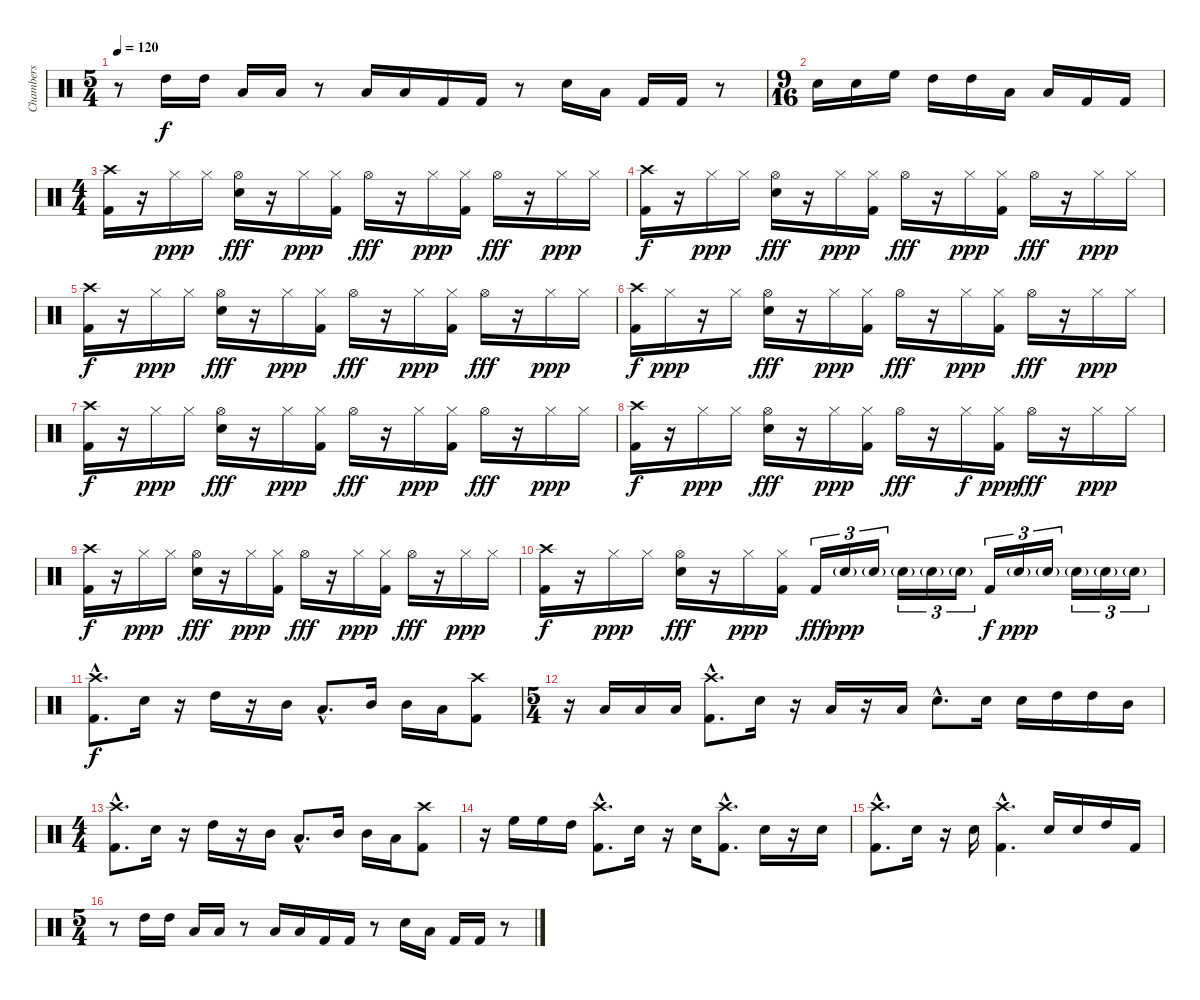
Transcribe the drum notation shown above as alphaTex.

\track ("Chambers" "Chambers") {instrument percussion}
\staff {score}
\articulation defaults
\ts (5 4)
\tempo 120
\clef neutral
\ks c
r.8{dy f} "High Tom (hit)".16 "High Tom (hit)".16 "Low Tom (hit)".16 "Low Tom (hit)".16 r.8 "Low Tom (hit)".16 "Low Tom (hit)".16 "Kick (hit) 2".16 "Kick (hit) 2".16 r.8 "Electric Snare (hit)".16 "Low Tom (hit)".16 "Kick (hit) 2".16 "Kick (hit) 2".16 r.8 |
\ts (9 16)
"Electric Snare (hit)".16 "Electric Snare (hit)".16 "High Floor Tom (hit)".16 "High Tom (hit)".16 "High Tom (hit)".16 "Low Tom (hit)".16 "Low Tom (hit)".16 "Kick (hit) 2".16 "Kick (hit) 2".16 |
\ts (4 4)
("Crash high (hit)" "Kick (hit) 2").16 r.16 "Hi-Hat (closed)".16{dy ppp} "Hi-Hat (closed)".16 ("Hi-Hat (open)" "Electric Snare (hit)").16{dy fff} r.16 "Hi-Hat (closed)".16{dy ppp} ("Hi-Hat (closed)" "Kick (hit) 2").16 "Hi-Hat (open)".16{dy fff} r.16 "Hi-Hat (closed)".16{dy ppp} ("Hi-Hat (closed)" "Kick (hit) 2").16 "Hi-Hat (open)".16{dy fff} r.16 "Hi-Hat (closed)".16{dy ppp} "Hi-Hat (closed)".16 |
("Crash high (hit)" "Kick (hit) 2").16{dy f} r.16 "Hi-Hat (closed)".16{dy ppp} "Hi-Hat (closed)".16 ("Hi-Hat (open)" "Electric Snare (hit)").16{dy fff} r.16 "Hi-Hat (closed)".16{dy ppp} ("Hi-Hat (closed)" "Kick (hit) 2").16 "Hi-Hat (open)".16{dy fff} r.16 "Hi-Hat (closed)".16{dy ppp} ("Hi-Hat (closed)" "Kick (hit) 2").16 "Hi-Hat (open)".16{dy fff} r.16 "Hi-Hat (closed)".16{dy ppp} "Hi-Hat (closed)".16 |
("Crash high (hit)" "Kick (hit) 2").16{dy f} r.16 "Hi-Hat (closed)".16{dy ppp} "Hi-Hat (closed)".16 ("Hi-Hat (open)" "Electric Snare (hit)").16{dy fff} r.16 "Hi-Hat (closed)".16{dy ppp} ("Hi-Hat (closed)" "Kick (hit) 2").16 "Hi-Hat (open)".16{dy fff} r.16 "Hi-Hat (closed)".16{dy ppp} ("Hi-Hat (closed)" "Kick (hit) 2").16 "Hi-Hat (open)".16{dy fff} r.16 "Hi-Hat (closed)".16{dy ppp} "Hi-Hat (closed)".16 |
("Crash high (hit)" "Kick (hit) 2").16{dy f} "Hi-Hat (closed)".16{dy ppp} r.16 "Hi-Hat (closed)".16 ("Hi-Hat (open)" "Electric Snare (hit)").16{dy fff} r.16 "Hi-Hat (closed)".16{dy ppp} ("Hi-Hat (closed)" "Kick (hit) 2").16 "Hi-Hat (open)".16{dy fff} r.16 "Hi-Hat (closed)".16{dy ppp} ("Hi-Hat (closed)" "Kick (hit) 2").16 "Hi-Hat (open)".16{dy fff} r.16 "Hi-Hat (closed)".16{dy ppp} "Hi-Hat (closed)".16 |
("Crash high (hit)" "Kick (hit) 2").16{dy f} r.16 "Hi-Hat (closed)".16{dy ppp} "Hi-Hat (closed)".16 ("Hi-Hat (open)" "Electric Snare (hit)").16{dy fff} r.16 "Hi-Hat (closed)".16{dy ppp} ("Hi-Hat (closed)" "Kick (hit) 2").16 "Hi-Hat (open)".16{dy fff} r.16 "Hi-Hat (closed)".16{dy ppp} ("Hi-Hat (closed)" "Kick (hit) 2").16 "Hi-Hat (open)".16{dy fff} r.16 "Hi-Hat (closed)".16{dy ppp} "Hi-Hat (closed)".16 |
("Crash high (hit)" "Kick (hit) 2").16{dy f} r.16 "Hi-Hat (closed)".16{dy ppp} "Hi-Hat (closed)".16 ("Hi-Hat (open)" "Electric Snare (hit)").16{dy fff} r.16 "Hi-Hat (closed)".16{dy ppp} ("Hi-Hat (closed)" "Kick (hit) 2").16 "Hi-Hat (open)".16{dy fff} r.16 "Hi-Hat (closed)".16{dy f} ("Hi-Hat (closed)" "Kick (hit) 2").16{dy ppp} "Hi-Hat (open)".16{dy fff} r.16 "Hi-Hat (closed)".16{dy ppp} "Hi-Hat (closed)".16 |
("Crash high (hit)" "Kick (hit) 2").16{dy f} r.16 "Hi-Hat (closed)".16{dy ppp} "Hi-Hat (closed)".16 ("Hi-Hat (open)" "Electric Snare (hit)").16{dy fff} r.16 "Hi-Hat (closed)".16{dy ppp} ("Hi-Hat (closed)" "Kick (hit) 2").16 "Hi-Hat (open)".16{dy fff} r.16 "Hi-Hat (closed)".16{dy ppp} ("Hi-Hat (closed)" "Kick (hit) 2").16 "Hi-Hat (open)".16{dy fff} r.16 "Hi-Hat (closed)".16{dy ppp} "Hi-Hat (closed)".16 |
("Crash high (hit)" "Kick (hit) 2").16{dy f} r.16 "Hi-Hat (closed)".16{dy ppp} "Hi-Hat (closed)".16 ("Hi-Hat (open)" "Electric Snare (hit)").16{dy fff} r.16 "Hi-Hat (closed)".16{dy ppp} ("Hi-Hat (closed)" "Kick (hit) 2").16 "Kick (hit) 2".16{tu (3 2) dy fff} "Electric Snare (hit)"{g}.16{tu (3 2) dy ppp} "Electric Snare (hit)"{g}.16{tu (3 2)} "Electric Snare (hit)"{g}.16{tu (3 2)} "Electric Snare (hit)"{g}.16{tu (3 2)} "Electric Snare (hit)"{g}.16{tu (3 2)} "Kick (hit) 2".16{tu (3 2) dy f} "Electric Snare (hit)"{g}.16{tu (3 2) dy ppp} "Electric Snare (hit)"{g}.16{tu (3 2)} "Electric Snare (hit)"{g}.16{tu (3 2)} "Electric Snare (hit)"{g}.16{tu (3 2)} "Electric Snare (hit)"{g}.16{tu (3 2)} |
("Crash high (hit)"{hac} "Kick (hit) 2"{hac}).8{d dy f} "Electric Snare (hit)".16 r.16 "High Tom (hit)".16 r.16 "Mid Tom (hit)".16 "Low Tom (hit)"{hac}.8{d} "Mid Tom (hit)".16 "Mid Tom (hit)".16 "Low Tom (hit)".16 ("Crash high (hit)" "Kick (hit) 2").8 |
\ts (5 4)
r.16 "Low Tom (hit)".16 "Low Tom (hit)".16 "Low Tom (hit)".16 ("Crash high (hit)"{hac} "Kick (hit) 2"{hac}).8{d} "Electric Snare (hit)".16 r.16 "Low Tom (hit)".16 r.16 "Low Tom (hit)".16 "Electric Snare (hit)"{hac}.8{d} "Electric Snare (hit)".16 "Electric Snare (hit)".16 "High Tom (hit)".16 "High Tom (hit)".16 "Mid Tom (hit)".16 |
\ts (4 4)
("Crash high (hit)"{hac} "Kick (hit) 2"{hac}).8{d} "Electric Snare (hit)".16 r.16 "High Tom (hit)".16 r.16 "Mid Tom (hit)".16 "Low Tom (hit)"{hac}.8{d} "Mid Tom (hit)".16 "Mid Tom (hit)".16 "Low Tom (hit)".16 ("Crash high (hit)" "Kick (hit) 2").8 |
r.16 "High Floor Tom (hit)".16 "High Floor Tom (hit)".16 "High Tom (hit)".16 ("Crash high (hit)"{hac} "Kick (hit) 2"{hac}).8{d} "Electric Snare (hit)".16 r.16 "Electric Snare (hit)".16 ("Crash high (hit)"{hac} "Kick (hit) 2"{hac}).8{d} "Electric Snare (hit)".16 r.16 "Electric Snare (hit)".16 |
("Crash high (hit)"{hac} "Kick (hit) 2"{hac}).8{d} "Electric Snare (hit)".16 r.16 "Electric Snare (hit)".16 ("Crash high (hit)"{hac} "Kick (hit) 2"{hac}).4{d} "Electric Snare (hit)".16 "Electric Snare (hit)".16 "High Tom (hit)".16 "Kick (hit) 2".16 |
\ts (5 4)
r.8 "High Tom (hit)".16 "High Tom (hit)".16 "Low Tom (hit)".16 "Low Tom (hit)".16 r.8 "Low Tom (hit)".16 "Low Tom (hit)".16 "Kick (hit) 2".16 "Kick (hit) 2".16 r.8 "Electric Snare (hit)".16 "Low Tom (hit)".16 "Kick (hit) 2".16 "Kick (hit) 2".16 r.8
